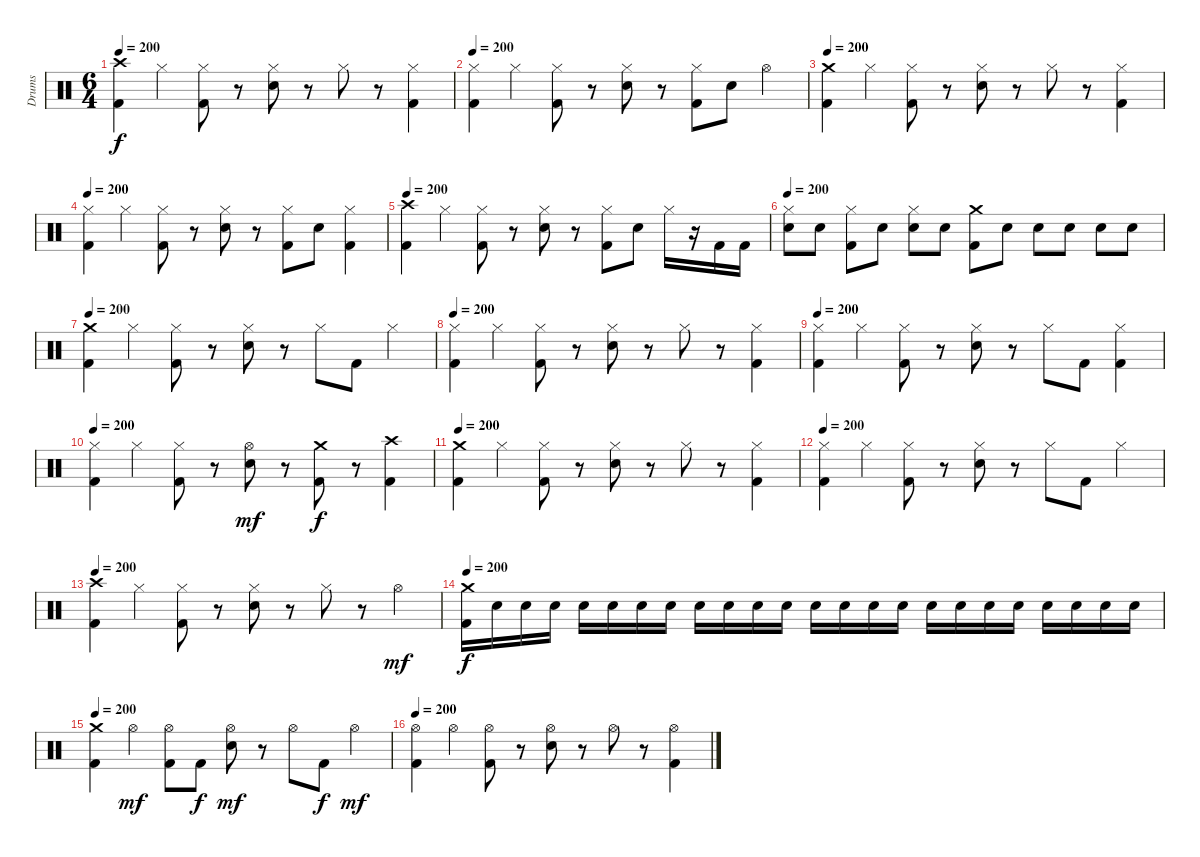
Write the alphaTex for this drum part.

\track ("Drums" "Drums") {instrument percussion}
\staff {score}
\articulation defaults
\ts (6 4)
\tempo 200
\clef neutral
\ks c
("Crash high (hit)" "Kick (hit) 2").4{dy f} "Hi-Hat (closed)".4 ("Hi-Hat (closed)" "Kick (hit) 2").8 r.8 ("Hi-Hat (closed)" "Electric Snare (hit)").8 r.8 "Hi-Hat (closed)".8 r.8 ("Hi-Hat (closed)" "Kick (hit) 2").4 |
\tempo 200
("Hi-Hat (closed)" "Kick (hit) 2").4 "Hi-Hat (closed)".4 ("Hi-Hat (closed)" "Kick (hit) 2").8 r.8 ("Hi-Hat (closed)" "Electric Snare (hit)").8 r.8 ("Hi-Hat (closed)" "Kick (hit) 2").8 "Electric Snare (hit)".8 "Hi-Hat (open)".4 |
\tempo 200
("Crash medium (hit)" "Kick (hit) 2").4 "Hi-Hat (closed)".4 ("Hi-Hat (closed)" "Kick (hit) 2").8 r.8 ("Hi-Hat (closed)" "Electric Snare (hit)").8 r.8 "Hi-Hat (closed)".8 r.8 ("Hi-Hat (closed)" "Kick (hit) 2").4 |
\tempo 200
("Hi-Hat (closed)" "Kick (hit) 2").4 "Hi-Hat (closed)".4 ("Hi-Hat (closed)" "Kick (hit) 2").8 r.8 ("Hi-Hat (closed)" "Electric Snare (hit)").8 r.8 ("Hi-Hat (closed)" "Kick (hit) 2").8 "Electric Snare (hit)".8 ("Hi-Hat (closed)" "Kick (hit) 2").4 |
\tempo 200
("Crash high (hit)" "Kick (hit) 2").4 "Hi-Hat (closed)".4 ("Hi-Hat (closed)" "Kick (hit) 2").8 r.8 ("Hi-Hat (closed)" "Electric Snare (hit)").8 r.8 ("Hi-Hat (closed)" "Kick (hit) 2").8 "Electric Snare (hit)".8 "Hi-Hat (closed)".16 r.16 "Kick (hit) 2".16 "Kick (hit) 2".16 |
\tempo 200
("Hi-Hat (closed)" "Electric Snare (hit)").8 "Electric Snare (hit)".8 ("Hi-Hat (closed)" "Kick (hit) 2").8 "Electric Snare (hit)".8 ("Hi-Hat (closed)" "Electric Snare (hit)").8 "Electric Snare (hit)".8 ("Crash medium (hit)" "Kick (hit) 2").8 "Electric Snare (hit)".8 "Electric Snare (hit)".8 "Electric Snare (hit)".8 "Electric Snare (hit)".8 "Electric Snare (hit)".8 |
\tempo 200
("Crash medium (hit)" "Kick (hit) 2").4 "Hi-Hat (closed)".4 ("Hi-Hat (closed)" "Kick (hit) 2").8 r.8 ("Hi-Hat (closed)" "Electric Snare (hit)").8 r.8 "Hi-Hat (closed)".8 "Kick (hit) 2".8 "Hi-Hat (closed)".4 |
\tempo 200
("Hi-Hat (closed)" "Kick (hit) 2").4 "Hi-Hat (closed)".4 ("Hi-Hat (closed)" "Kick (hit) 2").8 r.8 ("Hi-Hat (closed)" "Electric Snare (hit)").8 r.8 "Hi-Hat (closed)".8 r.8 ("Hi-Hat (closed)" "Kick (hit) 2").4 |
\tempo 200
("Hi-Hat (closed)" "Kick (hit) 2").4 "Hi-Hat (closed)".4 ("Hi-Hat (closed)" "Kick (hit) 2").8 r.8 ("Hi-Hat (closed)" "Electric Snare (hit)").8 r.8 "Hi-Hat (closed)".8 "Kick (hit) 2".8 ("Hi-Hat (closed)" "Kick (hit) 2").4 |
\tempo 200
("Hi-Hat (closed)" "Kick (hit) 2").4 "Hi-Hat (closed)".4 ("Hi-Hat (closed)" "Kick (hit) 2").8 r.8 ("Hi-Hat (open)" "Electric Snare (hit)").8{dy mf} r.8 ("Crash medium (hit)" "Kick (hit) 2").8{dy f} r.8 ("Crash high (hit)" "Kick (hit) 2").4 |
\tempo 200
("Crash medium (hit)" "Kick (hit) 2").4 "Hi-Hat (closed)".4 ("Hi-Hat (closed)" "Kick (hit) 2").8 r.8 ("Hi-Hat (closed)" "Electric Snare (hit)").8 r.8 "Hi-Hat (closed)".8 r.8 ("Hi-Hat (closed)" "Kick (hit) 2").4 |
\tempo 200
("Hi-Hat (closed)" "Kick (hit) 2").4 "Hi-Hat (closed)".4 ("Hi-Hat (closed)" "Kick (hit) 2").8 r.8 ("Hi-Hat (closed)" "Electric Snare (hit)").8 r.8 "Hi-Hat (closed)".8 "Kick (hit) 2".8 "Hi-Hat (closed)".4 |
\tempo 200
("Crash high (hit)" "Kick (hit) 2").4 "Hi-Hat (closed)".4 ("Hi-Hat (closed)" "Kick (hit) 2").8 r.8 ("Hi-Hat (closed)" "Electric Snare (hit)").8 r.8 "Hi-Hat (closed)".8 r.8 "Hi-Hat (open)".4{dy mf} |
\tempo 200
("Crash medium (hit)" "Kick (hit) 2").16{dy f} "Electric Snare (hit)".16 "Electric Snare (hit)".16 "Electric Snare (hit)".16 "Electric Snare (hit)".16 "Electric Snare (hit)".16 "Electric Snare (hit)".16 "Electric Snare (hit)".16 "Electric Snare (hit)".16 "Electric Snare (hit)".16 "Electric Snare (hit)".16 "Electric Snare (hit)".16 "Electric Snare (hit)".16 "Electric Snare (hit)".16 "Electric Snare (hit)".16 "Electric Snare (hit)".16 "Electric Snare (hit)".16 "Electric Snare (hit)".16 "Electric Snare (hit)".16 "Electric Snare (hit)".16 "Electric Snare (hit)".16 "Electric Snare (hit)".16 "Electric Snare (hit)".16 "Electric Snare (hit)".16 |
\tempo 200
("Crash medium (hit)" "Kick (hit) 2").4 "Hi-Hat (open)".4{dy mf} ("Hi-Hat (open)" "Kick (hit) 2").8 "Kick (hit) 2".8{dy f} ("Hi-Hat (open)" "Electric Snare (hit)").8{dy mf} r.8 "Hi-Hat (open)".8 "Kick (hit) 2".8{dy f} "Hi-Hat (open)".4{dy mf} |
\tempo 200
("Hi-Hat (open)" "Kick (hit) 2").4 "Hi-Hat (open)".4 ("Hi-Hat (open)" "Kick (hit) 2").8 r.8 ("Hi-Hat (open)" "Electric Snare (hit)").8 r.8 "Hi-Hat (open)".8 r.8 ("Hi-Hat (open)" "Kick (hit) 2").4
